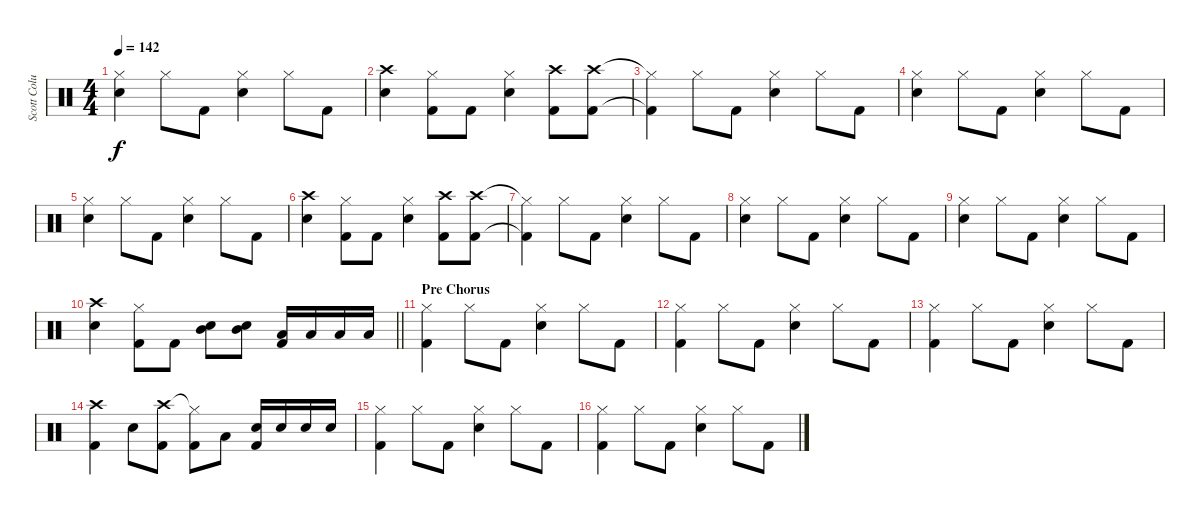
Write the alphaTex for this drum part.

\track ("Scott Columbus" "Scott Colu") {instrument percussion}
\staff {score}
\articulation defaults
\ts (4 4)
\tempo 142
\clef neutral
\ks c
("Hi-Hat (closed)" "Snare (hit) 2").4{dy f} "Hi-Hat (closed)".8 "Kick (hit) 2".8 ("Hi-Hat (closed)" "Snare (hit) 2").4 "Hi-Hat (closed)".8 "Kick (hit) 2".8 |
("Crash high (hit)" "Snare (hit) 2").4 ("Hi-Hat (closed)" "Kick (hit) 2").8 "Kick (hit) 2".8 ("Hi-Hat (closed)" "Snare (hit) 2").4 ("Crash high (hit)" "Kick (hit) 2").8 ("Crash high (hit)" "Kick (hit) 2").8 |
("Hi-Hat (closed)"{t} "Kick (hit) 2"{t}).4 "Hi-Hat (closed)".8 "Kick (hit) 2".8 ("Hi-Hat (closed)" "Snare (hit) 2").4 "Hi-Hat (closed)".8 "Kick (hit) 2".8 |
("Hi-Hat (closed)" "Snare (hit) 2").4 "Hi-Hat (closed)".8 "Kick (hit) 2".8 ("Hi-Hat (closed)" "Snare (hit) 2").4 "Hi-Hat (closed)".8 "Kick (hit) 2".8 |
("Hi-Hat (closed)" "Snare (hit) 2").4 "Hi-Hat (closed)".8 "Kick (hit) 2".8 ("Hi-Hat (closed)" "Snare (hit) 2").4 "Hi-Hat (closed)".8 "Kick (hit) 2".8 |
("Crash high (hit)" "Snare (hit) 2").4 ("Hi-Hat (closed)" "Kick (hit) 2").8 "Kick (hit) 2".8 ("Hi-Hat (closed)" "Snare (hit) 2").4 ("Crash high (hit)" "Kick (hit) 2").8 ("Crash high (hit)" "Kick (hit) 2").8 |
("Hi-Hat (closed)"{t} "Kick (hit) 2"{t}).4 "Hi-Hat (closed)".8 "Kick (hit) 2".8 ("Hi-Hat (closed)" "Snare (hit) 2").4 "Hi-Hat (closed)".8 "Kick (hit) 2".8 |
("Hi-Hat (closed)" "Snare (hit) 2").4 "Hi-Hat (closed)".8 "Kick (hit) 2".8 ("Hi-Hat (closed)" "Snare (hit) 2").4 "Hi-Hat (closed)".8 "Kick (hit) 2".8 |
("Hi-Hat (closed)" "Snare (hit) 2").4 "Hi-Hat (closed)".8 "Kick (hit) 2".8 ("Hi-Hat (closed)" "Snare (hit) 2").4 "Hi-Hat (closed)".8 "Kick (hit) 2".8 |
\barLineRight lightlight
("Crash high (hit)" "Snare (hit) 2").4 ("Hi-Hat (closed)" "Kick (hit) 2").8 "Kick (hit) 2".8 ("Mid Tom (hit)" "Snare (hit) 2").8 ("Mid Tom (hit)" "Snare (hit) 2").8 ("Low Tom (hit)" "Kick (hit) 2").16 "Low Tom (hit)".16 "Low Tom (hit)".16 "Low Tom (hit)".16 |
\section ("" "Pre Chorus")
("Hi-Hat (closed)" "Kick (hit) 2").4 "Hi-Hat (closed)".8 "Kick (hit) 2".8 ("Hi-Hat (closed)" "Snare (hit) 2").4 "Hi-Hat (closed)".8 "Kick (hit) 2".8 |
("Hi-Hat (closed)" "Kick (hit) 2").4 "Hi-Hat (closed)".8 "Kick (hit) 2".8 ("Hi-Hat (closed)" "Snare (hit) 2").4 "Hi-Hat (closed)".8 "Kick (hit) 2".8 |
("Hi-Hat (closed)" "Kick (hit) 2").4 "Hi-Hat (closed)".8 "Kick (hit) 2".8 ("Hi-Hat (closed)" "Snare (hit) 2").4 "Hi-Hat (closed)".8 "Kick (hit) 2".8 |
("Crash high (hit)" "Kick (hit) 2").4 "Snare (hit) 2".8 ("Crash high (hit)" "Kick (hit) 2").8 ("Hi-Hat (closed)"{t} "Kick (hit) 2").8 "Low Tom (hit)".8 ("Snare (hit) 2" "Kick (hit) 2").16 "Snare (hit) 2".16 "Snare (hit) 2".16 "Snare (hit) 2".16 |
("Hi-Hat (closed)" "Kick (hit) 2").4 "Hi-Hat (closed)".8 "Kick (hit) 2".8 ("Hi-Hat (closed)" "Snare (hit) 2").4 "Hi-Hat (closed)".8 "Kick (hit) 2".8 |
("Hi-Hat (closed)" "Kick (hit) 2").4 "Hi-Hat (closed)".8 "Kick (hit) 2".8 ("Hi-Hat (closed)" "Snare (hit) 2").4 "Hi-Hat (closed)".8 "Kick (hit) 2".8
